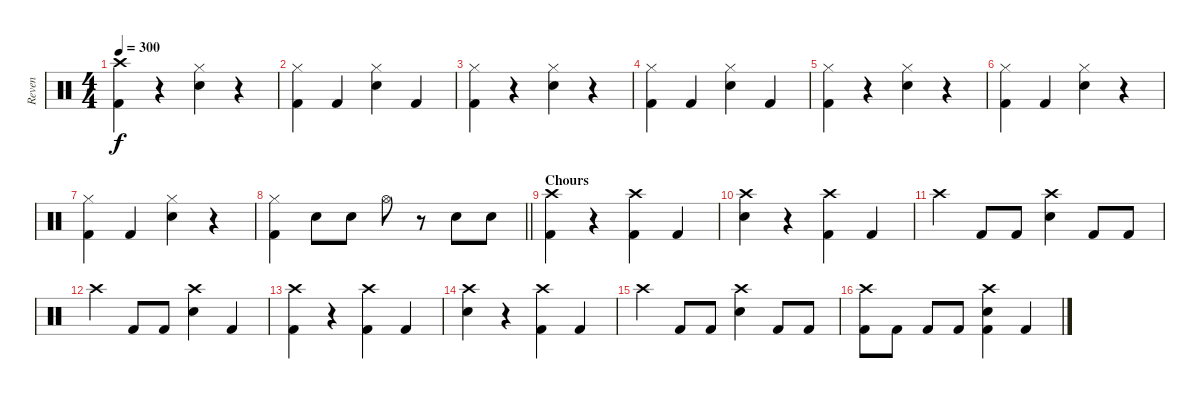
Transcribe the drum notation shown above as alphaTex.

\track ("Reven" "Reven") {instrument percussion}
\staff {score}
\articulation defaults
\ts (4 4)
\tempo 300
\clef neutral
\ks c
("Crash high (hit)" "Kick (hit) 2").4{dy f} r.4 ("Hi-Hat (closed)" "Electric Snare (hit)").4 r.4 |
("Hi-Hat (closed)" "Kick (hit) 2").4 "Kick (hit) 2".4 ("Hi-Hat (closed)" "Electric Snare (hit)").4 "Kick (hit) 2".4 |
("Hi-Hat (closed)" "Kick (hit) 2").4 r.4 ("Hi-Hat (closed)" "Electric Snare (hit)").4 r.4 |
("Hi-Hat (closed)" "Kick (hit) 2").4 "Kick (hit) 2".4 ("Hi-Hat (closed)" "Electric Snare (hit)").4 "Kick (hit) 2".4 |
("Hi-Hat (closed)" "Kick (hit) 2").4 r.4 ("Hi-Hat (closed)" "Electric Snare (hit)").4 r.4 |
("Hi-Hat (closed)" "Kick (hit) 2").4 "Kick (hit) 2".4 ("Hi-Hat (closed)" "Electric Snare (hit)").4 r.4 |
("Hi-Hat (closed)" "Kick (hit) 2").4 "Kick (hit) 2".4 ("Hi-Hat (closed)" "Electric Snare (hit)").4 r.4 |
\barLineRight lightlight
("Hi-Hat (closed)" "Kick (hit) 2").4 "Electric Snare (hit)".8 "Electric Snare (hit)".8 "Hi-Hat (open)".8 r.8 "Electric Snare (hit)".8 "Electric Snare (hit)".8 |
\section ("" "Chours")
("Crash high (hit)" "Kick (hit) 2").4 r.4 ("Crash high (hit)" "Kick (hit) 2").4 "Kick (hit) 2".4 |
("Crash high (hit)" "Electric Snare (hit)").4 r.4 ("Crash high (hit)" "Kick (hit) 2").4 "Kick (hit) 2".4 |
"Crash high (hit)".4 "Kick (hit) 2".8 "Kick (hit) 2".8 ("Crash high (hit)" "Electric Snare (hit)").4 "Kick (hit) 2".8 "Kick (hit) 2".8 |
"Crash high (hit)".4 "Kick (hit) 2".8 "Kick (hit) 2".8 ("Crash high (hit)" "Electric Snare (hit)").4 "Kick (hit) 2".4 |
("Crash high (hit)" "Kick (hit) 2").4 r.4 ("Crash high (hit)" "Kick (hit) 2").4 "Kick (hit) 2".4 |
("Crash high (hit)" "Electric Snare (hit)").4 r.4 ("Crash high (hit)" "Kick (hit) 2").4 "Kick (hit) 2".4 |
"Crash high (hit)".4 "Kick (hit) 2".8 "Kick (hit) 2".8 ("Crash high (hit)" "Electric Snare (hit)").4 "Kick (hit) 2".8 "Kick (hit) 2".8 |
("Crash high (hit)" "Kick (hit) 2").8 "Kick (hit) 2".8 "Kick (hit) 2".8 "Kick (hit) 2".8 ("Crash high (hit)" "Electric Snare (hit)" "Kick (hit) 2").4 "Kick (hit) 2".4
